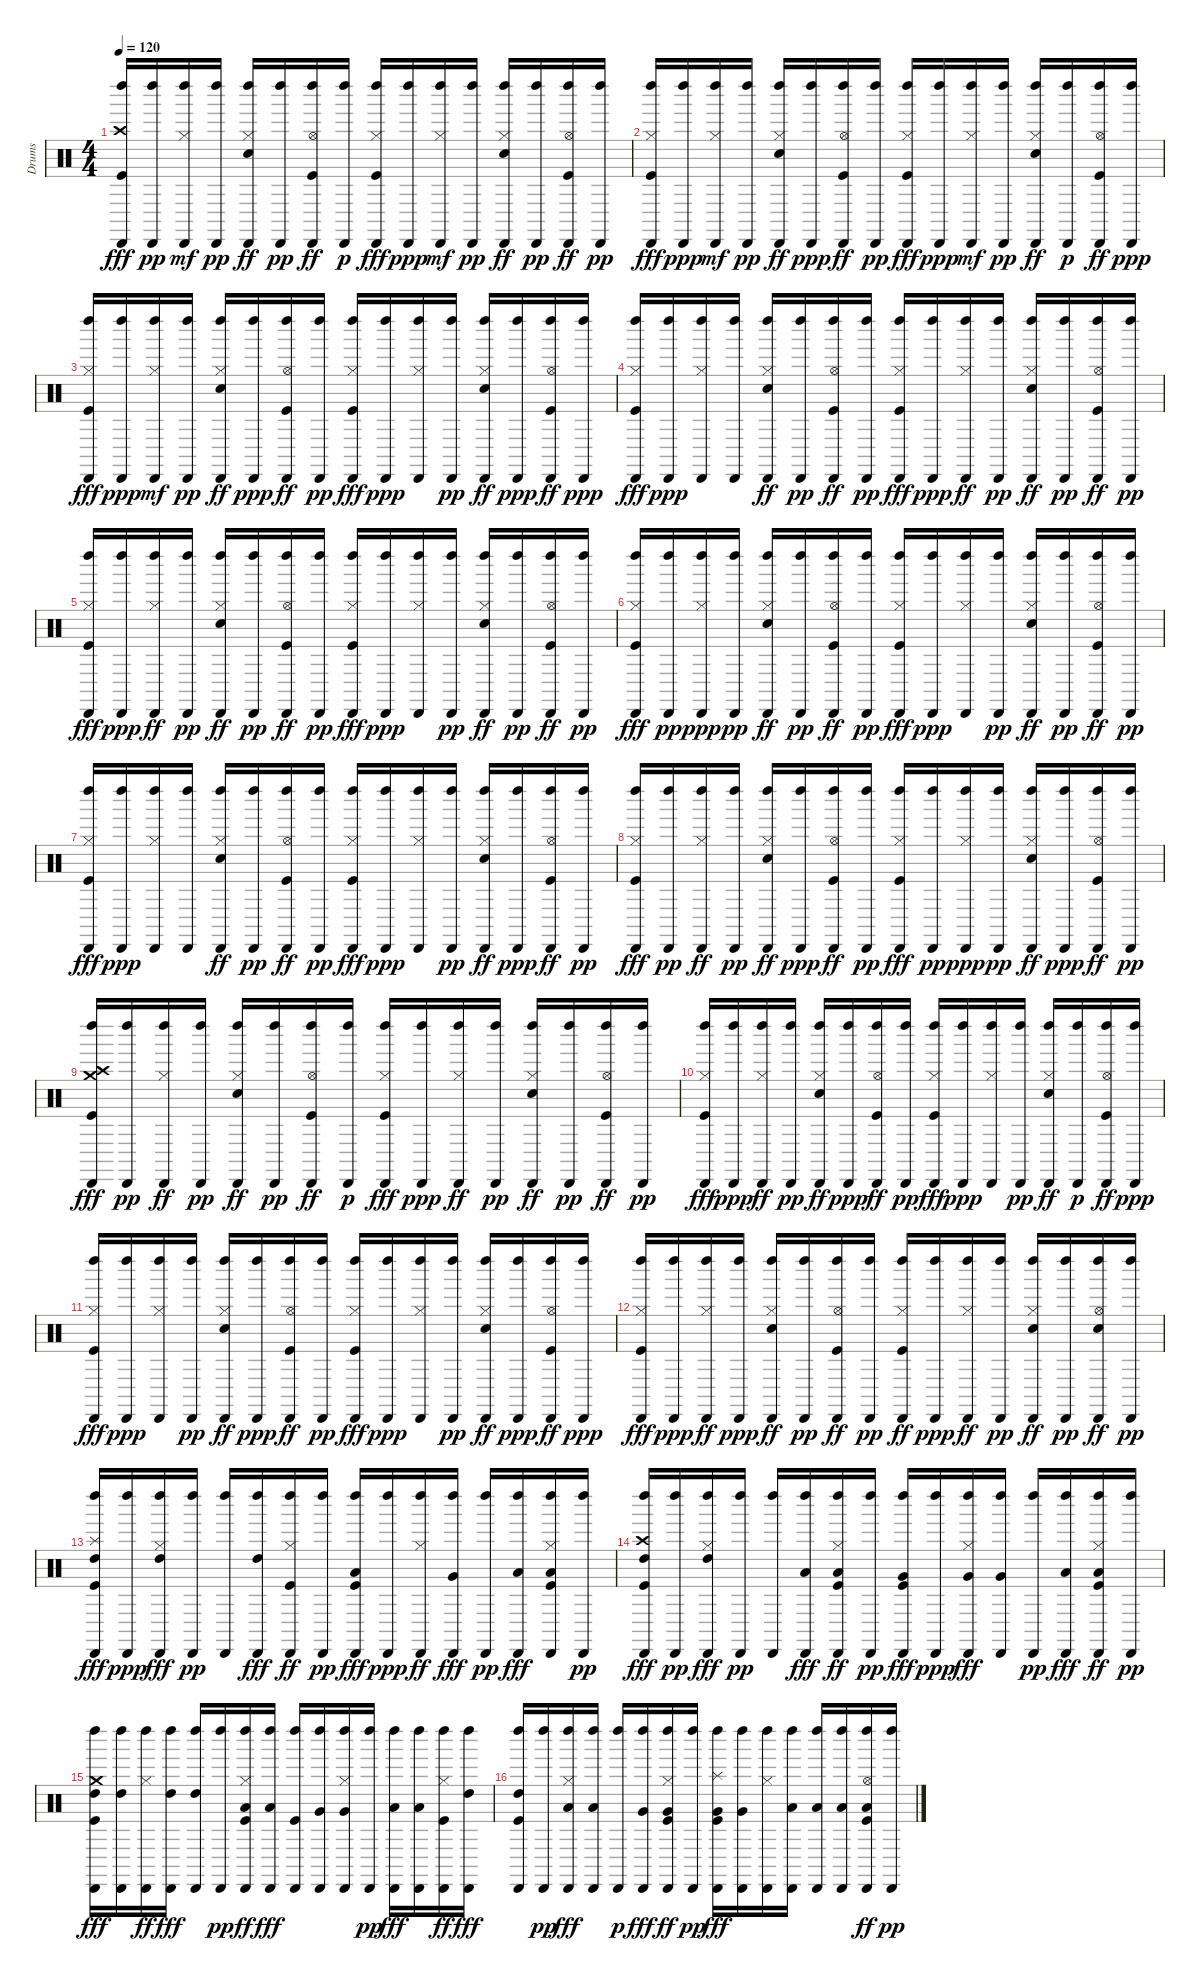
\track ("Drums" "Drums") {instrument percussion}
\staff {score}
\articulation defaults
\ts (4 4)
\tempo 120
\clef neutral
\ks c
("Left Maraca (hit)" "Cabasa (hit)" "Crash high (hit)" "Kick (hit)").16{dy fff} ("Left Maraca (hit)" "Cabasa (hit)").16{dy pp} ("Left Maraca (hit)" "Cabasa (hit)" "Hi-Hat (closed)").16{dy mf} ("Left Maraca (hit)" "Cabasa (hit)").16{dy pp} ("Left Maraca (hit)" "Cabasa (hit)" "Hi-Hat (closed)" "Electric Snare (hit)").16{dy ff} ("Left Maraca (hit)" "Cabasa (hit)").16{dy pp} ("Left Maraca (hit)" "Cabasa (hit)" "Hi-Hat (open)" "Kick (hit)").16{dy ff} ("Left Maraca (hit)" "Cabasa (hit)").16{dy p} ("Left Maraca (hit)" "Cabasa (hit)" "Hi-Hat (closed)" "Kick (hit)").16{dy fff} ("Left Maraca (hit)" "Cabasa (hit)").16{dy ppp} ("Left Maraca (hit)" "Cabasa (hit)" "Hi-Hat (closed)").16{dy mf} ("Left Maraca (hit)" "Cabasa (hit)").16{dy pp} ("Left Maraca (hit)" "Cabasa (hit)" "Hi-Hat (closed)" "Electric Snare (hit)").16{dy ff} ("Left Maraca (hit)" "Cabasa (hit)").16{dy pp} ("Left Maraca (hit)" "Cabasa (hit)" "Hi-Hat (open)" "Kick (hit)").16{dy ff} ("Left Maraca (hit)" "Cabasa (hit)").16{dy pp} |
("Left Maraca (hit)" "Cabasa (hit)" "Hi-Hat (closed)" "Kick (hit)").16{dy fff} ("Left Maraca (hit)" "Cabasa (hit)").16{dy ppp} ("Left Maraca (hit)" "Cabasa (hit)" "Hi-Hat (closed)").16{dy mf} ("Left Maraca (hit)" "Cabasa (hit)").16{dy pp} ("Left Maraca (hit)" "Cabasa (hit)" "Hi-Hat (closed)" "Electric Snare (hit)").16{dy ff} ("Left Maraca (hit)" "Cabasa (hit)").16{dy ppp} ("Left Maraca (hit)" "Cabasa (hit)" "Hi-Hat (open)" "Kick (hit)").16{dy ff} ("Left Maraca (hit)" "Cabasa (hit)").16{dy pp} ("Left Maraca (hit)" "Cabasa (hit)" "Hi-Hat (closed)" "Kick (hit)").16{dy fff} ("Left Maraca (hit)" "Cabasa (hit)").16{dy ppp} ("Left Maraca (hit)" "Cabasa (hit)" "Hi-Hat (closed)").16{dy mf} ("Left Maraca (hit)" "Cabasa (hit)").16{dy pp} ("Left Maraca (hit)" "Cabasa (hit)" "Hi-Hat (closed)" "Electric Snare (hit)").16{dy ff} ("Left Maraca (hit)" "Cabasa (hit)").16{dy p} ("Left Maraca (hit)" "Cabasa (hit)" "Hi-Hat (open)" "Kick (hit)").16{dy ff} ("Left Maraca (hit)" "Cabasa (hit)").16{dy ppp} |
("Left Maraca (hit)" "Cabasa (hit)" "Hi-Hat (closed)" "Kick (hit)").16{dy fff} ("Left Maraca (hit)" "Cabasa (hit)").16{dy ppp} ("Left Maraca (hit)" "Cabasa (hit)" "Hi-Hat (closed)").16{dy mf} ("Left Maraca (hit)" "Cabasa (hit)").16{dy pp} ("Cabasa (hit)" "Left Maraca (hit)" "Hi-Hat (closed)" "Electric Snare (hit)").16{dy ff} ("Left Maraca (hit)" "Cabasa (hit)").16{dy ppp} ("Left Maraca (hit)" "Cabasa (hit)" "Hi-Hat (open)" "Kick (hit)").16{dy ff} ("Left Maraca (hit)" "Cabasa (hit)").16{dy pp} ("Left Maraca (hit)" "Cabasa (hit)" "Hi-Hat (closed)" "Kick (hit)").16{dy fff} ("Left Maraca (hit)" "Cabasa (hit)").16{dy ppp} ("Left Maraca (hit)" "Cabasa (hit)" "Hi-Hat (closed)").16 ("Left Maraca (hit)" "Cabasa (hit)").16{dy pp} ("Left Maraca (hit)" "Cabasa (hit)" "Hi-Hat (closed)" "Electric Snare (hit)").16{dy ff} ("Left Maraca (hit)" "Cabasa (hit)").16{dy ppp} ("Left Maraca (hit)" "Cabasa (hit)" "Hi-Hat (open)" "Kick (hit)").16{dy ff} ("Left Maraca (hit)" "Cabasa (hit)").16{dy ppp} |
("Left Maraca (hit)" "Cabasa (hit)" "Hi-Hat (closed)" "Kick (hit)").16{dy fff} ("Left Maraca (hit)" "Cabasa (hit)").16{dy ppp} ("Left Maraca (hit)" "Cabasa (hit)" "Hi-Hat (closed)").16 ("Left Maraca (hit)" "Cabasa (hit)").16 ("Left Maraca (hit)" "Cabasa (hit)" "Hi-Hat (closed)" "Electric Snare (hit)").16{dy ff} ("Left Maraca (hit)" "Cabasa (hit)").16{dy pp} ("Left Maraca (hit)" "Cabasa (hit)" "Hi-Hat (open)" "Kick (hit)").16{dy ff} ("Left Maraca (hit)" "Cabasa (hit)").16{dy pp} ("Left Maraca (hit)" "Cabasa (hit)" "Hi-Hat (closed)" "Kick (hit)").16{dy fff} ("Left Maraca (hit)" "Cabasa (hit)").16{dy ppp} ("Left Maraca (hit)" "Cabasa (hit)" "Hi-Hat (closed)").16{dy ff} ("Left Maraca (hit)" "Cabasa (hit)").16{dy pp} ("Left Maraca (hit)" "Cabasa (hit)" "Hi-Hat (closed)" "Electric Snare (hit)").16{dy ff} ("Left Maraca (hit)" "Cabasa (hit)").16{dy pp} ("Left Maraca (hit)" "Cabasa (hit)" "Hi-Hat (open)" "Kick (hit)").16{dy ff} ("Left Maraca (hit)" "Cabasa (hit)").16{dy pp} |
("Left Maraca (hit)" "Cabasa (hit)" "Hi-Hat (closed)" "Kick (hit)").16{dy fff} ("Left Maraca (hit)" "Cabasa (hit)").16{dy ppp} ("Left Maraca (hit)" "Cabasa (hit)" "Hi-Hat (closed)").16{dy ff} ("Left Maraca (hit)" "Cabasa (hit)").16{dy pp} ("Left Maraca (hit)" "Cabasa (hit)" "Hi-Hat (closed)" "Electric Snare (hit)").16{dy ff} ("Left Maraca (hit)" "Cabasa (hit)").16{dy pp} ("Left Maraca (hit)" "Cabasa (hit)" "Hi-Hat (open)" "Kick (hit)").16{dy ff} ("Left Maraca (hit)" "Cabasa (hit)").16{dy pp} ("Left Maraca (hit)" "Cabasa (hit)" "Hi-Hat (closed)" "Kick (hit)").16{dy fff} ("Left Maraca (hit)" "Cabasa (hit)").16{dy ppp} ("Left Maraca (hit)" "Cabasa (hit)" "Hi-Hat (closed)").16 ("Left Maraca (hit)" "Cabasa (hit)").16{dy pp} ("Left Maraca (hit)" "Cabasa (hit)" "Hi-Hat (closed)" "Electric Snare (hit)").16{dy ff} ("Left Maraca (hit)" "Cabasa (hit)").16{dy pp} ("Left Maraca (hit)" "Cabasa (hit)" "Hi-Hat (open)" "Kick (hit)").16{dy ff} ("Left Maraca (hit)" "Cabasa (hit)").16{dy pp} |
("Left Maraca (hit)" "Cabasa (hit)" "Hi-Hat (closed)" "Kick (hit)").16{dy fff} ("Left Maraca (hit)" "Cabasa (hit)").16{dy pp} ("Left Maraca (hit)" "Cabasa (hit)" "Hi-Hat (closed)").16{dy ppp} ("Left Maraca (hit)" "Cabasa (hit)").16{dy pp} ("Left Maraca (hit)" "Cabasa (hit)" "Hi-Hat (closed)" "Electric Snare (hit)").16{dy ff} ("Left Maraca (hit)" "Cabasa (hit)").16{dy pp} ("Left Maraca (hit)" "Cabasa (hit)" "Hi-Hat (open)" "Kick (hit)").16{dy ff} ("Left Maraca (hit)" "Cabasa (hit)").16{dy pp} ("Left Maraca (hit)" "Cabasa (hit)" "Hi-Hat (closed)" "Kick (hit)").16{dy fff} ("Left Maraca (hit)" "Cabasa (hit)").16{dy ppp} ("Left Maraca (hit)" "Cabasa (hit)" "Hi-Hat (closed)").16 ("Left Maraca (hit)" "Cabasa (hit)").16{dy pp} ("Left Maraca (hit)" "Cabasa (hit)" "Hi-Hat (closed)" "Electric Snare (hit)").16{dy ff} ("Left Maraca (hit)" "Cabasa (hit)").16{dy pp} ("Left Maraca (hit)" "Cabasa (hit)" "Hi-Hat (open)" "Kick (hit)").16{dy ff} ("Left Maraca (hit)" "Cabasa (hit)").16{dy pp} |
("Left Maraca (hit)" "Cabasa (hit)" "Hi-Hat (closed)" "Kick (hit)").16{dy fff} ("Left Maraca (hit)" "Cabasa (hit)").16{dy ppp} ("Left Maraca (hit)" "Cabasa (hit)" "Hi-Hat (closed)").16 ("Left Maraca (hit)" "Cabasa (hit)").16 ("Left Maraca (hit)" "Cabasa (hit)" "Hi-Hat (closed)" "Electric Snare (hit)").16{dy ff} ("Left Maraca (hit)" "Cabasa (hit)").16{dy pp} ("Left Maraca (hit)" "Cabasa (hit)" "Hi-Hat (open)" "Kick (hit)").16{dy ff} ("Left Maraca (hit)" "Cabasa (hit)").16{dy pp} ("Left Maraca (hit)" "Cabasa (hit)" "Hi-Hat (closed)" "Kick (hit)").16{dy fff} ("Left Maraca (hit)" "Cabasa (hit)").16{dy ppp} ("Left Maraca (hit)" "Cabasa (hit)" "Hi-Hat (closed)").16 ("Left Maraca (hit)" "Cabasa (hit)").16{dy pp} ("Left Maraca (hit)" "Cabasa (hit)" "Hi-Hat (closed)" "Electric Snare (hit)").16{dy ff} ("Left Maraca (hit)" "Cabasa (hit)").16{dy ppp} ("Left Maraca (hit)" "Cabasa (hit)" "Hi-Hat (open)" "Kick (hit)").16{dy ff} ("Left Maraca (hit)" "Cabasa (hit)").16{dy pp} |
("Left Maraca (hit)" "Cabasa (hit)" "Hi-Hat (closed)" "Kick (hit)").16{dy fff} ("Left Maraca (hit)" "Cabasa (hit)").16{dy pp} ("Left Maraca (hit)" "Cabasa (hit)" "Hi-Hat (closed)").16{dy ff} ("Left Maraca (hit)" "Cabasa (hit)").16{dy pp} ("Left Maraca (hit)" "Cabasa (hit)" "Hi-Hat (closed)" "Electric Snare (hit)").16{dy ff} ("Left Maraca (hit)" "Cabasa (hit)").16{dy ppp} ("Left Maraca (hit)" "Cabasa (hit)" "Hi-Hat (open)" "Kick (hit)").16{dy ff} ("Left Maraca (hit)" "Cabasa (hit)").16{dy pp} ("Left Maraca (hit)" "Cabasa (hit)" "Hi-Hat (closed)" "Kick (hit)").16{dy fff} ("Left Maraca (hit)" "Cabasa (hit)").16{dy pp} ("Left Maraca (hit)" "Cabasa (hit)" "Hi-Hat (closed)").16{dy ppp} ("Left Maraca (hit)" "Cabasa (hit)").16{dy pp} ("Left Maraca (hit)" "Cabasa (hit)" "Hi-Hat (closed)" "Electric Snare (hit)").16{dy ff} ("Left Maraca (hit)" "Cabasa (hit)").16{dy ppp} ("Left Maraca (hit)" "Cabasa (hit)" "Hi-Hat (open)" "Kick (hit)").16{dy ff} ("Left Maraca (hit)" "Cabasa (hit)").16{dy pp} |
("Left Maraca (hit)" "Cabasa (hit)" "Crash medium (hit)" "Crash high (hit)" "Kick (hit)").16{dy fff} ("Left Maraca (hit)" "Cabasa (hit)").16{dy pp} ("Left Maraca (hit)" "Cabasa (hit)" "Hi-Hat (closed)").16{dy ff} ("Left Maraca (hit)" "Cabasa (hit)").16{dy pp} ("Left Maraca (hit)" "Cabasa (hit)" "Hi-Hat (closed)" "Electric Snare (hit)").16{dy ff} ("Left Maraca (hit)" "Cabasa (hit)").16{dy pp} ("Left Maraca (hit)" "Cabasa (hit)" "Hi-Hat (open)" "Kick (hit)").16{dy ff} ("Left Maraca (hit)" "Cabasa (hit)").16{dy p} ("Left Maraca (hit)" "Cabasa (hit)" "Hi-Hat (closed)" "Kick (hit)").16{dy fff} ("Left Maraca (hit)" "Cabasa (hit)").16{dy ppp} ("Left Maraca (hit)" "Cabasa (hit)" "Hi-Hat (closed)").16{dy ff} ("Left Maraca (hit)" "Cabasa (hit)").16{dy pp} ("Left Maraca (hit)" "Cabasa (hit)" "Hi-Hat (closed)" "Electric Snare (hit)").16{dy ff} ("Left Maraca (hit)" "Cabasa (hit)").16{dy pp} ("Left Maraca (hit)" "Cabasa (hit)" "Hi-Hat (open)" "Kick (hit)").16{dy ff} ("Left Maraca (hit)" "Cabasa (hit)").16{dy pp} |
("Left Maraca (hit)" "Cabasa (hit)" "Hi-Hat (closed)" "Kick (hit)").16{dy fff} ("Left Maraca (hit)" "Cabasa (hit)").16{dy ppp} ("Left Maraca (hit)" "Cabasa (hit)" "Hi-Hat (closed)").16{dy ff} ("Left Maraca (hit)" "Cabasa (hit)").16{dy pp} ("Left Maraca (hit)" "Cabasa (hit)" "Hi-Hat (closed)" "Electric Snare (hit)").16{dy ff} ("Left Maraca (hit)" "Cabasa (hit)").16{dy ppp} ("Left Maraca (hit)" "Cabasa (hit)" "Hi-Hat (open)" "Kick (hit)").16{dy ff} ("Left Maraca (hit)" "Cabasa (hit)").16{dy pp} ("Left Maraca (hit)" "Cabasa (hit)" "Hi-Hat (closed)" "Kick (hit)").16{dy fff} ("Left Maraca (hit)" "Cabasa (hit)").16{dy ppp} ("Left Maraca (hit)" "Cabasa (hit)" "Hi-Hat (closed)").16 ("Left Maraca (hit)" "Cabasa (hit)").16{dy pp} ("Left Maraca (hit)" "Cabasa (hit)" "Hi-Hat (closed)" "Electric Snare (hit)").16{dy ff} ("Left Maraca (hit)" "Cabasa (hit)").16{dy p} ("Left Maraca (hit)" "Cabasa (hit)" "Hi-Hat (open)" "Kick (hit)").16{dy ff} ("Left Maraca (hit)" "Cabasa (hit)").16{dy ppp} |
("Left Maraca (hit)" "Cabasa (hit)" "Hi-Hat (closed)" "Kick (hit)").16{dy fff} ("Left Maraca (hit)" "Cabasa (hit)").16{dy ppp} ("Left Maraca (hit)" "Cabasa (hit)" "Hi-Hat (closed)").16 ("Left Maraca (hit)" "Cabasa (hit)").16{dy pp} ("Left Maraca (hit)" "Cabasa (hit)" "Hi-Hat (closed)" "Electric Snare (hit)").16{dy ff} ("Left Maraca (hit)" "Cabasa (hit)").16{dy ppp} ("Left Maraca (hit)" "Cabasa (hit)" "Hi-Hat (open)" "Kick (hit)").16{dy ff} ("Left Maraca (hit)" "Cabasa (hit)").16{dy pp} ("Left Maraca (hit)" "Cabasa (hit)" "Hi-Hat (closed)" "Kick (hit)").16{dy fff} ("Left Maraca (hit)" "Cabasa (hit)").16{dy ppp} ("Left Maraca (hit)" "Cabasa (hit)" "Hi-Hat (closed)").16 ("Left Maraca (hit)" "Cabasa (hit)").16{dy pp} ("Left Maraca (hit)" "Cabasa (hit)" "Hi-Hat (closed)" "Electric Snare (hit)").16{dy ff} ("Left Maraca (hit)" "Cabasa (hit)").16{dy ppp} ("Left Maraca (hit)" "Cabasa (hit)" "Hi-Hat (open)" "Kick (hit)").16{dy ff} ("Left Maraca (hit)" "Cabasa (hit)").16{dy ppp} |
("Left Maraca (hit)" "Cabasa (hit)" "Hi-Hat (closed)" "Kick (hit)").16{dy fff} ("Left Maraca (hit)" "Cabasa (hit)").16{dy ppp} ("Left Maraca (hit)" "Cabasa (hit)" "Hi-Hat (closed)").16{dy ff} ("Left Maraca (hit)" "Cabasa (hit)").16{dy ppp} ("Left Maraca (hit)" "Cabasa (hit)" "Hi-Hat (closed)" "Electric Snare (hit)").16{dy ff} ("Left Maraca (hit)" "Cabasa (hit)").16{dy pp} ("Left Maraca (hit)" "Cabasa (hit)" "Hi-Hat (open)" "Kick (hit)").16{dy ff} ("Left Maraca (hit)" "Cabasa (hit)").16{dy pp} ("Left Maraca (hit)" "Cabasa (hit)" "Hi-Hat (closed)" "Kick (hit)").16{dy ff} ("Left Maraca (hit)" "Cabasa (hit)").16{dy ppp} ("Left Maraca (hit)" "Cabasa (hit)" "Hi-Hat (closed)").16{dy ff} ("Left Maraca (hit)" "Cabasa (hit)").16{dy pp} ("Left Maraca (hit)" "Cabasa (hit)" "Hi-Hat (closed)" "Electric Snare (hit)").16{dy ff} ("Left Maraca (hit)" "Cabasa (hit)").16{dy pp} ("Left Maraca (hit)" "Cabasa (hit)" "Hi-Hat (open)" "Electric Snare (hit)").16{dy ff} ("Left Maraca (hit)" "Cabasa (hit)").16{dy pp} |
("Left Maraca (hit)" "Cabasa (hit)" "Splash (hit)" "High Tom (hit)" "Kick (hit)").16{dy fff} ("Left Maraca (hit)" "Cabasa (hit)").16{dy ppp} ("Left Maraca (hit)" "Cabasa (hit)" "Hi-Hat (closed)" "High Tom (hit)").16{dy fff} ("Left Maraca (hit)" "Cabasa (hit)").16{dy pp} ("Left Maraca (hit)" "Cabasa (hit)").16 ("Left Maraca (hit)" "Cabasa (hit)" "High Tom (hit)").16{dy fff} ("Left Maraca (hit)" "Cabasa (hit)" "Hi-Hat (closed)" "Kick (hit)").16{dy ff} ("Left Maraca (hit)" "Cabasa (hit)").16{dy pp} ("Left Maraca (hit)" "Cabasa (hit)" "Low Tom (hit)" "Kick (hit)").16{dy fff} ("Left Maraca (hit)" "Cabasa (hit)").16{dy ppp} ("Left Maraca (hit)" "Cabasa (hit)" "Hi-Hat (closed)").16{dy ff} ("Left Maraca (hit)" "Cabasa (hit)" "Very Low Tom (hit)").16{dy fff} ("Left Maraca (hit)" "Cabasa (hit)").16{dy pp} ("Left Maraca (hit)" "Cabasa (hit)" "Low Floor Tom (hit)").16{dy fff} ("Left Maraca (hit)" "Cabasa (hit)" "Hi-Hat (closed)" "Low Floor Tom (hit)" "Kick (hit)").16 ("Left Maraca (hit)" "Cabasa (hit)").16{dy pp} |
("Left Maraca (hit)" "Cabasa (hit)" "Crash high (hit)" "High Tom (hit)" "Kick (hit)").16{dy fff} ("Left Maraca (hit)" "Cabasa (hit)").16{dy pp} ("Left Maraca (hit)" "Cabasa (hit)" "Hi-Hat (closed)" "High Tom (hit)").16{dy fff} ("Left Maraca (hit)" "Cabasa (hit)").16{dy pp} ("Left Maraca (hit)" "Cabasa (hit)").16 ("Left Maraca (hit)" "Cabasa (hit)" "Low Tom (hit)").16{dy fff} ("Left Maraca (hit)" "Cabasa (hit)" "Hi-Hat (closed)" "Low Tom (hit)" "Kick (hit)").16{dy ff} ("Left Maraca (hit)" "Cabasa (hit)").16{dy pp} ("Left Maraca (hit)" "Cabasa (hit)" "Very Low Tom (hit)" "Kick (hit)").16{dy fff} ("Left Maraca (hit)" "Cabasa (hit)").16{dy ppp} ("Left Maraca (hit)" "Cabasa (hit)" "Hi-Hat (closed)" "Very Low Tom (hit)").16{dy fff} ("Left Maraca (hit)" "Cabasa (hit)" "Very Low Tom (hit)").16 ("Left Maraca (hit)" "Cabasa (hit)").16{dy pp} ("Left Maraca (hit)" "Cabasa (hit)" "Low Floor Tom (hit)").16{dy fff} ("Left Maraca (hit)" "Cabasa (hit)" "Hi-Hat (closed)" "Low Floor Tom (hit)" "Kick (hit)").16{dy ff} ("Left Maraca (hit)" "Cabasa (hit)").16{dy pp} |
("Left Maraca (hit)" "Cabasa (hit)" "Crash medium (hit)" "High Tom (hit)" "Kick (hit)").16{dy fff} ("Left Maraca (hit)" "Cabasa (hit)" "High Tom (hit)").16 ("Left Maraca (hit)" "Cabasa (hit)" "Hi-Hat (closed)").16{dy ff} ("Left Maraca (hit)" "Cabasa (hit)" "High Tom (hit)").16{dy fff} ("Left Maraca (hit)" "Cabasa (hit)" "High Tom (hit)").16 ("Left Maraca (hit)" "Cabasa (hit)").16{dy pp} ("Left Maraca (hit)" "Cabasa (hit)" "Hi-Hat (closed)" "Low Tom (hit)" "Kick (hit)").16{dy ff} ("Left Maraca (hit)" "Cabasa (hit)" "Low Tom (hit)").16{dy fff} ("Left Maraca (hit)" "Cabasa (hit)" "Kick (hit)").16 ("Left Maraca (hit)" "Cabasa (hit)" "Very Low Tom (hit)").16 ("Left Maraca (hit)" "Cabasa (hit)" "Hi-Hat (closed)" "Very Low Tom (hit)").16 ("Left Maraca (hit)" "Cabasa (hit)").16{dy pp} ("Left Maraca (hit)" "Cabasa (hit)" "Low Floor Tom (hit)").16{dy fff} ("Left Maraca (hit)" "Cabasa (hit)" "Low Floor Tom (hit)").16 ("Left Maraca (hit)" "Cabasa (hit)" "Hi-Hat (closed)" "Kick (hit)").16{dy ff} ("Left Maraca (hit)" "Cabasa (hit)" "High Tom (hit)").16{dy fff} |
("Left Maraca (hit)" "Cabasa (hit)" "High Tom (hit)" "Kick (hit)").16 ("Left Maraca (hit)" "Cabasa (hit)").16{dy pp} ("Left Maraca (hit)" "Cabasa (hit)" "Hi-Hat (closed)" "Low Tom (hit)").16{dy fff} ("Cabasa (hit)" "Left Maraca (hit)" "Low Tom (hit)").16 ("Left Maraca (hit)" "Cabasa (hit)").16{dy p} ("Left Maraca (hit)" "Cabasa (hit)" "Very Low Tom (hit)").16{dy fff} ("Left Maraca (hit)" "Cabasa (hit)" "Hi-Hat (closed)" "Very Low Tom (hit)" "Kick (hit)").16{dy ff} ("Left Maraca (hit)" "Cabasa (hit)").16{dy pp} ("Left Maraca (hit)" "Cabasa (hit)" "Splash (hit)" "Very Low Tom (hit)" "Kick (hit)").16{dy fff} ("Left Maraca (hit)" "Cabasa (hit)" "Very Low Tom (hit)").16 ("Left Maraca (hit)" "Cabasa (hit)" "Hi-Hat (closed)").16 ("Left Maraca (hit)" "Cabasa (hit)" "Low Floor Tom (hit)").16 ("Left Maraca (hit)" "Cabasa (hit)" "Low Floor Tom (hit)").16 ("Left Maraca (hit)" "Cabasa (hit)" "Low Floor Tom (hit)").16 ("Left Maraca (hit)" "Cabasa (hit)" "Hi-Hat (open)" "Low Floor Tom (hit)" "Kick (hit)").16{dy ff} ("Left Maraca (hit)" "Cabasa (hit)").16{dy pp}
